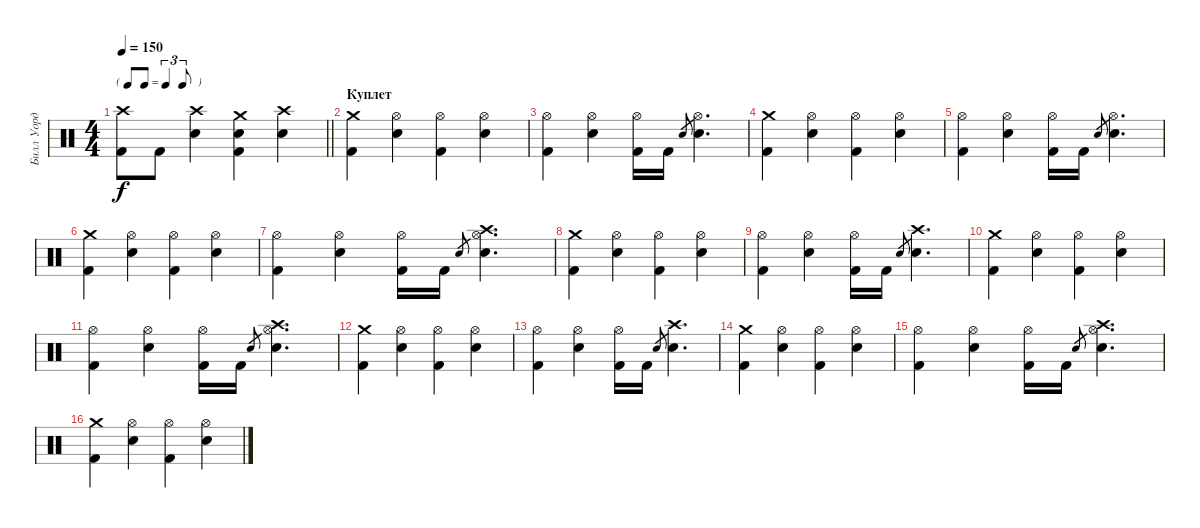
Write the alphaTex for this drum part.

\track ("Билл Уорд" "Билл Уорд") {instrument percussion}
\staff {score}
\articulation defaults
\ts (4 4)
\tf triplet8th
\tempo 150
\clef neutral
\barLineRight lightlight
\ks c
("Kick (hit) 2" "Crash high (hit)").8{dy f} "Kick (hit) 2".8 ("Snare (hit) 2" "Crash high (hit)").4 ("Snare (hit) 2" "Kick (hit) 2" "Crash medium (hit)").4 ("Snare (hit) 2" "Crash high (hit)").4 |
\section ("" "Куплет")
("Crash medium (hit)" "Kick (hit) 2").4 ("Hi-Hat (open)" "Snare (hit) 2").4 ("Hi-Hat (open)" "Kick (hit) 2").4 ("Hi-Hat (open)" "Snare (hit) 2").4 |
("Kick (hit) 2" "Hi-Hat (open)").4 ("Snare (hit) 2" "Hi-Hat (open)").4 ("Kick (hit) 2" "Hi-Hat (open)").16 "Kick (hit) 2".16 "Snare (hit) 2".8{gr} ("Snare (hit) 2" "Hi-Hat (open)").4{d} |
("Crash medium (hit)" "Kick (hit) 2").4 ("Hi-Hat (open)" "Snare (hit) 2").4 ("Hi-Hat (open)" "Kick (hit) 2").4 ("Hi-Hat (open)" "Snare (hit) 2").4 |
("Kick (hit) 2" "Hi-Hat (open)").4 ("Snare (hit) 2" "Hi-Hat (open)").4 ("Kick (hit) 2" "Hi-Hat (open)").16 "Kick (hit) 2".16 "Snare (hit) 2".8{gr} ("Snare (hit) 2" "Hi-Hat (open)").4{d} |
("Crash medium (hit)" "Kick (hit) 2").4 ("Hi-Hat (open)" "Snare (hit) 2").4 ("Hi-Hat (open)" "Kick (hit) 2").4 ("Hi-Hat (open)" "Snare (hit) 2").4 |
("Kick (hit) 2" "Hi-Hat (open)").4 ("Snare (hit) 2" "Hi-Hat (open)").4 ("Kick (hit) 2" "Hi-Hat (open)").16 "Kick (hit) 2".16 "Snare (hit) 2".8{gr} ("Snare (hit) 2" "Hi-Hat (open)" "Crash high (hit)").4{d} |
("Crash medium (hit)" "Kick (hit) 2").4 ("Hi-Hat (open)" "Snare (hit) 2").4 ("Hi-Hat (open)" "Kick (hit) 2").4 ("Hi-Hat (open)" "Snare (hit) 2").4 |
("Kick (hit) 2" "Hi-Hat (open)").4 ("Snare (hit) 2" "Hi-Hat (open)").4 ("Kick (hit) 2" "Hi-Hat (open)").16 "Kick (hit) 2".16 "Snare (hit) 2".8{gr} ("Snare (hit) 2" "Crash high (hit)").4{d} |
("Crash medium (hit)" "Kick (hit) 2").4 ("Hi-Hat (open)" "Snare (hit) 2").4 ("Hi-Hat (open)" "Kick (hit) 2").4 ("Hi-Hat (open)" "Snare (hit) 2").4 |
("Kick (hit) 2" "Hi-Hat (open)").4 ("Snare (hit) 2" "Hi-Hat (open)").4 ("Kick (hit) 2" "Hi-Hat (open)").16 "Kick (hit) 2".16 "Snare (hit) 2".8{gr} ("Snare (hit) 2" "Hi-Hat (open)" "Crash high (hit)").4{d} |
("Crash medium (hit)" "Kick (hit) 2").4 ("Hi-Hat (open)" "Snare (hit) 2").4 ("Hi-Hat (open)" "Kick (hit) 2").4 ("Hi-Hat (open)" "Snare (hit) 2").4 |
("Kick (hit) 2" "Hi-Hat (open)").4 ("Snare (hit) 2" "Hi-Hat (open)").4 ("Kick (hit) 2" "Hi-Hat (open)").16 "Kick (hit) 2".16 "Snare (hit) 2".8{gr} ("Snare (hit) 2" "Crash high (hit)").4{d} |
("Crash medium (hit)" "Kick (hit) 2").4 ("Hi-Hat (open)" "Snare (hit) 2").4 ("Hi-Hat (open)" "Kick (hit) 2").4 ("Hi-Hat (open)" "Snare (hit) 2").4 |
("Kick (hit) 2" "Hi-Hat (open)").4 ("Snare (hit) 2" "Hi-Hat (open)").4 ("Kick (hit) 2" "Hi-Hat (open)").16 "Kick (hit) 2".16 "Snare (hit) 2".8{gr} ("Snare (hit) 2" "Hi-Hat (open)" "Crash high (hit)").4{d} |
("Crash medium (hit)" "Kick (hit) 2").4 ("Hi-Hat (open)" "Snare (hit) 2").4 ("Hi-Hat (open)" "Kick (hit) 2").4 ("Hi-Hat (open)" "Snare (hit) 2").4
